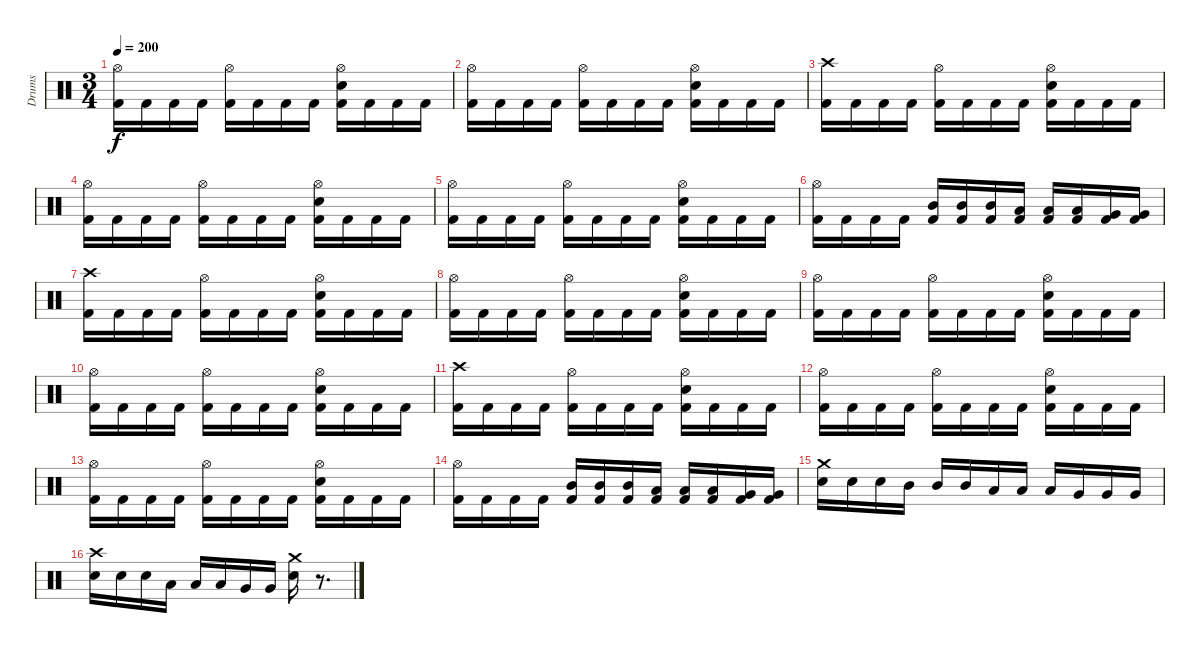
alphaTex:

\track ("Drums" "Drums") {instrument percussion}
\staff {score}
\articulation defaults
\ts (3 4)
\tempo 200
\clef neutral
\ks c
("Hi-Hat (open)" "Kick (hit) 2").16{dy f} "Kick (hit) 2".16 "Kick (hit) 2".16 "Kick (hit) 2".16 ("Hi-Hat (open)" "Kick (hit) 2").16 "Kick (hit) 2".16 "Kick (hit) 2".16 "Kick (hit) 2".16 ("Hi-Hat (open)" "Electric Snare (hit)" "Kick (hit) 2").16 "Kick (hit) 2".16 "Kick (hit) 2".16 "Kick (hit) 2".16 |
("Hi-Hat (open)" "Kick (hit) 2").16 "Kick (hit) 2".16 "Kick (hit) 2".16 "Kick (hit) 2".16 ("Hi-Hat (open)" "Kick (hit) 2").16 "Kick (hit) 2".16 "Kick (hit) 2".16 "Kick (hit) 2".16 ("Hi-Hat (open)" "Electric Snare (hit)" "Kick (hit) 2").16 "Kick (hit) 2".16 "Kick (hit) 2".16 "Kick (hit) 2".16 |
("Crash high (hit)" "Kick (hit) 2").16 "Kick (hit) 2".16 "Kick (hit) 2".16 "Kick (hit) 2".16 ("Hi-Hat (open)" "Kick (hit) 2").16 "Kick (hit) 2".16 "Kick (hit) 2".16 "Kick (hit) 2".16 ("Hi-Hat (open)" "Electric Snare (hit)" "Kick (hit) 2").16 "Kick (hit) 2".16 "Kick (hit) 2".16 "Kick (hit) 2".16 |
("Hi-Hat (open)" "Kick (hit) 2").16 "Kick (hit) 2".16 "Kick (hit) 2".16 "Kick (hit) 2".16 ("Hi-Hat (open)" "Kick (hit) 2").16 "Kick (hit) 2".16 "Kick (hit) 2".16 "Kick (hit) 2".16 ("Hi-Hat (open)" "Electric Snare (hit)" "Kick (hit) 2").16 "Kick (hit) 2".16 "Kick (hit) 2".16 "Kick (hit) 2".16 |
("Hi-Hat (open)" "Kick (hit) 2").16 "Kick (hit) 2".16 "Kick (hit) 2".16 "Kick (hit) 2".16 ("Hi-Hat (open)" "Kick (hit) 2").16 "Kick (hit) 2".16 "Kick (hit) 2".16 "Kick (hit) 2".16 ("Hi-Hat (open)" "Electric Snare (hit)" "Kick (hit) 2").16 "Kick (hit) 2".16 "Kick (hit) 2".16 "Kick (hit) 2".16 |
("Hi-Hat (open)" "Kick (hit) 2").16 "Kick (hit) 2".16 "Kick (hit) 2".16 "Kick (hit) 2".16 ("Mid Tom (hit)" "Kick (hit) 2").16 ("Mid Tom (hit)" "Kick (hit) 2").16 ("Mid Tom (hit)" "Kick (hit) 2").16 ("Low Tom (hit)" "Kick (hit) 2").16 ("Low Tom (hit)" "Kick (hit) 2").16 ("Low Tom (hit)" "Kick (hit) 2").16 ("Very Low Tom (hit)" "Kick (hit) 2").16 ("Very Low Tom (hit)" "Kick (hit) 2").16 |
("Crash high (hit)" "Kick (hit) 2").16 "Kick (hit) 2".16 "Kick (hit) 2".16 "Kick (hit) 2".16 ("Hi-Hat (open)" "Kick (hit) 2").16 "Kick (hit) 2".16 "Kick (hit) 2".16 "Kick (hit) 2".16 ("Hi-Hat (open)" "Electric Snare (hit)" "Kick (hit) 2").16 "Kick (hit) 2".16 "Kick (hit) 2".16 "Kick (hit) 2".16 |
("Hi-Hat (open)" "Kick (hit) 2").16 "Kick (hit) 2".16 "Kick (hit) 2".16 "Kick (hit) 2".16 ("Hi-Hat (open)" "Kick (hit) 2").16 "Kick (hit) 2".16 "Kick (hit) 2".16 "Kick (hit) 2".16 ("Hi-Hat (open)" "Electric Snare (hit)" "Kick (hit) 2").16 "Kick (hit) 2".16 "Kick (hit) 2".16 "Kick (hit) 2".16 |
("Hi-Hat (open)" "Kick (hit) 2").16 "Kick (hit) 2".16 "Kick (hit) 2".16 "Kick (hit) 2".16 ("Hi-Hat (open)" "Kick (hit) 2").16 "Kick (hit) 2".16 "Kick (hit) 2".16 "Kick (hit) 2".16 ("Hi-Hat (open)" "Electric Snare (hit)" "Kick (hit) 2").16 "Kick (hit) 2".16 "Kick (hit) 2".16 "Kick (hit) 2".16 |
("Hi-Hat (open)" "Kick (hit) 2").16 "Kick (hit) 2".16 "Kick (hit) 2".16 "Kick (hit) 2".16 ("Hi-Hat (open)" "Kick (hit) 2").16 "Kick (hit) 2".16 "Kick (hit) 2".16 "Kick (hit) 2".16 ("Hi-Hat (open)" "Electric Snare (hit)" "Kick (hit) 2").16 "Kick (hit) 2".16 "Kick (hit) 2".16 "Kick (hit) 2".16 |
("Crash high (hit)" "Kick (hit) 2").16 "Kick (hit) 2".16 "Kick (hit) 2".16 "Kick (hit) 2".16 ("Hi-Hat (open)" "Kick (hit) 2").16 "Kick (hit) 2".16 "Kick (hit) 2".16 "Kick (hit) 2".16 ("Hi-Hat (open)" "Electric Snare (hit)" "Kick (hit) 2").16 "Kick (hit) 2".16 "Kick (hit) 2".16 "Kick (hit) 2".16 |
("Hi-Hat (open)" "Kick (hit) 2").16 "Kick (hit) 2".16 "Kick (hit) 2".16 "Kick (hit) 2".16 ("Hi-Hat (open)" "Kick (hit) 2").16 "Kick (hit) 2".16 "Kick (hit) 2".16 "Kick (hit) 2".16 ("Hi-Hat (open)" "Electric Snare (hit)" "Kick (hit) 2").16 "Kick (hit) 2".16 "Kick (hit) 2".16 "Kick (hit) 2".16 |
("Hi-Hat (open)" "Kick (hit) 2").16 "Kick (hit) 2".16 "Kick (hit) 2".16 "Kick (hit) 2".16 ("Hi-Hat (open)" "Kick (hit) 2").16 "Kick (hit) 2".16 "Kick (hit) 2".16 "Kick (hit) 2".16 ("Hi-Hat (open)" "Electric Snare (hit)" "Kick (hit) 2").16 "Kick (hit) 2".16 "Kick (hit) 2".16 "Kick (hit) 2".16 |
("Hi-Hat (open)" "Kick (hit) 2").16 "Kick (hit) 2".16 "Kick (hit) 2".16 "Kick (hit) 2".16 ("Mid Tom (hit)" "Kick (hit) 2").16 ("Mid Tom (hit)" "Kick (hit) 2").16 ("Mid Tom (hit)" "Kick (hit) 2").16 ("Low Tom (hit)" "Kick (hit) 2").16 ("Low Tom (hit)" "Kick (hit) 2").16 ("Low Tom (hit)" "Kick (hit) 2").16 ("Very Low Tom (hit)" "Kick (hit) 2").16 ("Very Low Tom (hit)" "Kick (hit) 2").16 |
("Crash medium (hit)" "Electric Snare (hit)").16 "Electric Snare (hit)".16 "Electric Snare (hit)".16 "Mid Tom (hit)".16 "Mid Tom (hit)".16 "Mid Tom (hit)".16 "Low Tom (hit)".16 "Low Tom (hit)".16 "Low Tom (hit)".16 "Very Low Tom (hit)".16 "Very Low Tom (hit)".16 "Very Low Tom (hit)".16 |
("Crash high (hit)" "Electric Snare (hit)").16 "Electric Snare (hit)".16 "Electric Snare (hit)".16 "Low Tom (hit)".16 "Low Tom (hit)".16 "Low Tom (hit)".16 "Very Low Tom (hit)".16 "Very Low Tom (hit)".16 ("Crash medium (hit)" "Electric Snare (hit)").16 r.8{d}
